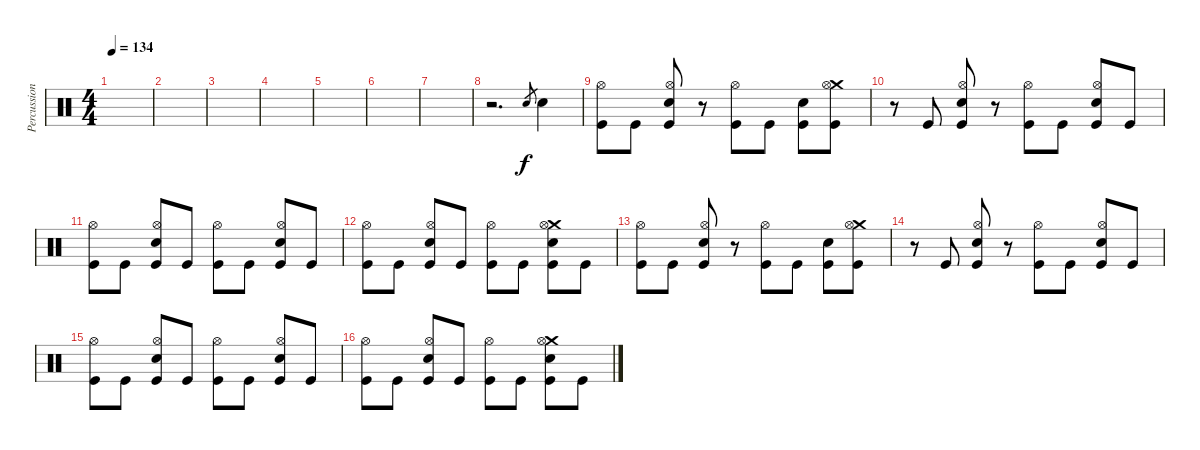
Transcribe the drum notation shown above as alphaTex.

\track ("Percussion" "Percussion") {instrument percussion}
\staff {score}
\articulation defaults
\ts (4 4)
\tempo 134
\clef neutral
\ks c
|
|
|
|
|
|
|
r.2{d} "Electric Snare (hit)".8{gr} "Electric Snare (hit)".4 |
("Hi-Hat (open)" "Kick (hit)").8 "Kick (hit)".8 ("Electric Snare (hit)" "Hi-Hat (open)" "Kick (hit)").8 r.8 ("Hi-Hat (open)" "Kick (hit)").8 "Kick (hit)".8 ("Electric Snare (hit)" "Kick (hit)").8 ("Crash medium (hit)" "Hi-Hat (open)" "Kick (hit)").8 |
r.8 "Kick (hit)".8 ("Electric Snare (hit)" "Hi-Hat (open)" "Kick (hit)").8 r.8 ("Hi-Hat (open)" "Kick (hit)").8 "Kick (hit)".8 ("Electric Snare (hit)" "Hi-Hat (open)" "Kick (hit)").8 "Kick (hit)".8 |
("Hi-Hat (open)" "Kick (hit)").8 "Kick (hit)".8 ("Electric Snare (hit)" "Hi-Hat (open)" "Kick (hit)").8 "Kick (hit)".8 ("Hi-Hat (open)" "Kick (hit)").8 "Kick (hit)".8 ("Electric Snare (hit)" "Hi-Hat (open)" "Kick (hit)").8 "Kick (hit)".8 |
("Hi-Hat (open)" "Kick (hit)").8 "Kick (hit)".8 ("Electric Snare (hit)" "Hi-Hat (open)" "Kick (hit)").8 "Kick (hit)".8 ("Hi-Hat (open)" "Kick (hit)").8 "Kick (hit)".8 ("Electric Snare (hit)" "Crash medium (hit)" "Hi-Hat (open)" "Kick (hit)").8 "Kick (hit)".8 |
("Hi-Hat (open)" "Kick (hit)").8 "Kick (hit)".8 ("Electric Snare (hit)" "Hi-Hat (open)" "Kick (hit)").8 r.8 ("Hi-Hat (open)" "Kick (hit)").8 "Kick (hit)".8 ("Electric Snare (hit)" "Kick (hit)").8 ("Crash medium (hit)" "Hi-Hat (open)" "Kick (hit)").8 |
r.8 "Kick (hit)".8 ("Electric Snare (hit)" "Hi-Hat (open)" "Kick (hit)").8 r.8 ("Hi-Hat (open)" "Kick (hit)").8 "Kick (hit)".8 ("Electric Snare (hit)" "Hi-Hat (open)" "Kick (hit)").8 "Kick (hit)".8 |
("Hi-Hat (open)" "Kick (hit)").8 "Kick (hit)".8 ("Electric Snare (hit)" "Hi-Hat (open)" "Kick (hit)").8 "Kick (hit)".8 ("Hi-Hat (open)" "Kick (hit)").8 "Kick (hit)".8 ("Electric Snare (hit)" "Hi-Hat (open)" "Kick (hit)").8 "Kick (hit)".8 |
("Hi-Hat (open)" "Kick (hit)").8 "Kick (hit)".8 ("Electric Snare (hit)" "Hi-Hat (open)" "Kick (hit)").8 "Kick (hit)".8 ("Hi-Hat (open)" "Kick (hit)").8 "Kick (hit)".8 ("Electric Snare (hit)" "Crash medium (hit)" "Hi-Hat (open)" "Kick (hit)").8 "Kick (hit)".8
